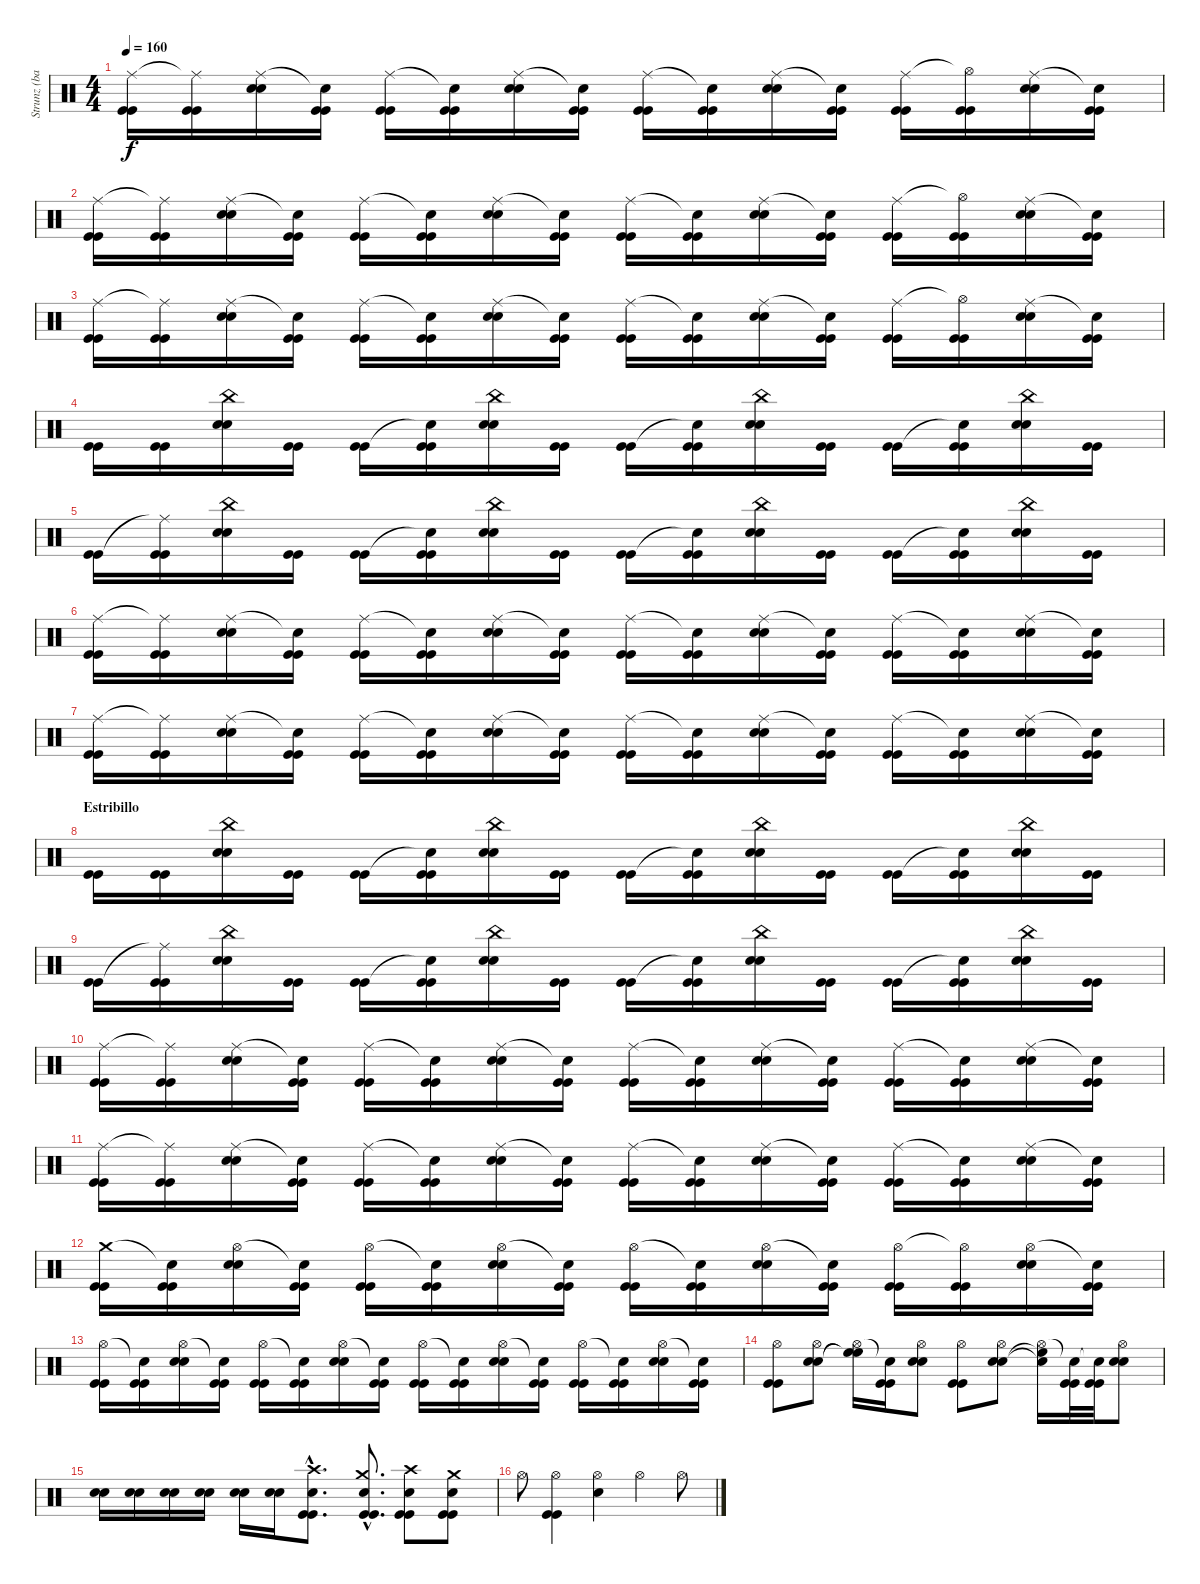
\track ("Strunz (bateria)" "Strunz (ba") {instrument percussion}
\staff {score}
\articulation defaults
\ts (4 4)
\tempo 160
\clef neutral
\ks c
("Ride (middle)" "Kick (hit)" "Kick (hit)").16{dy f} ("Ride (middle)"{t} "Kick (hit)" "Kick (hit)").16 ("Ride (middle)" "Snare (hit) 2" "Snare (hit) 2").16 ("Snare (hit)"{t} "Kick (hit)" "Kick (hit)").16 ("Ride (middle)" "Kick (hit)" "Kick (hit)").16 ("Snare (hit)"{t} "Kick (hit)" "Kick (hit)").16 ("Ride (middle)" "Snare (hit) 2" "Snare (hit) 2").16 ("Snare (hit)"{t} "Kick (hit)" "Kick (hit)").16 ("Ride (middle)" "Kick (hit)" "Kick (hit)").16 ("Snare (hit)"{t} "Kick (hit)" "Kick (hit)").16 ("Ride (middle)" "Snare (hit) 2" "Snare (hit) 2").16 ("Snare (hit)"{t} "Kick (hit)" "Kick (hit)").16 ("Ride (middle)" "Kick (hit)" "Kick (hit)").16 ("Hi-Hat (open)"{t} "Kick (hit)" "Kick (hit)").16 ("Ride (middle)" "Snare (hit) 2" "Snare (hit) 2").16 ("Snare (hit)"{t} "Kick (hit)" "Kick (hit)").16 |
("Ride (middle)" "Kick (hit)" "Kick (hit)").16 ("Ride (middle)"{t} "Kick (hit)" "Kick (hit)").16 ("Ride (middle)" "Snare (hit) 2" "Snare (hit) 2").16 ("Snare (hit)"{t} "Kick (hit)" "Kick (hit)").16 ("Ride (middle)" "Kick (hit)" "Kick (hit)").16 ("Snare (hit)"{t} "Kick (hit)" "Kick (hit)").16 ("Ride (middle)" "Snare (hit) 2" "Snare (hit) 2").16 ("Snare (hit)"{t} "Kick (hit)" "Kick (hit)").16 ("Ride (middle)" "Kick (hit)" "Kick (hit)").16 ("Snare (hit)"{t} "Kick (hit)" "Kick (hit)").16 ("Ride (middle)" "Snare (hit) 2" "Snare (hit) 2").16 ("Snare (hit)"{t} "Kick (hit)" "Kick (hit)").16 ("Ride (middle)" "Kick (hit)" "Kick (hit)").16 ("Hi-Hat (open)"{t} "Kick (hit)" "Kick (hit)").16 ("Ride (middle)" "Snare (hit) 2" "Snare (hit) 2").16 ("Snare (hit)"{t} "Kick (hit)" "Kick (hit)").16 |
("Ride (middle)" "Kick (hit)" "Kick (hit)").16 ("Ride (middle)"{t} "Kick (hit)" "Kick (hit)").16 ("Ride (middle)" "Snare (hit) 2" "Snare (hit) 2").16 ("Snare (hit)"{t} "Kick (hit)" "Kick (hit)").16 ("Ride (middle)" "Kick (hit)" "Kick (hit)").16 ("Snare (hit)"{t} "Kick (hit)" "Kick (hit)").16 ("Ride (middle)" "Snare (hit) 2" "Snare (hit) 2").16 ("Snare (hit)"{t} "Kick (hit)" "Kick (hit)").16 ("Ride (middle)" "Kick (hit)" "Kick (hit)").16 ("Snare (hit)"{t} "Kick (hit)" "Kick (hit)").16 ("Ride (middle)" "Snare (hit) 2" "Snare (hit) 2").16 ("Snare (hit)"{t} "Kick (hit)" "Kick (hit)").16 ("Ride (middle)" "Kick (hit)" "Kick (hit)").16 ("Hi-Hat (open)"{t} "Kick (hit)" "Kick (hit)").16 ("Ride (middle)" "Snare (hit) 2" "Snare (hit) 2").16 ("Snare (hit)"{t} "Kick (hit)" "Kick (hit)").16 |
("Kick (hit)" "Kick (hit)").16 ("Kick (hit)" "Kick (hit)").16 ("China (hit)" "Snare (hit) 2" "Snare (hit) 2").16 ("Kick (hit)" "Kick (hit)").16 ("Kick (hit)" "Kick (hit)").16 ("Snare (hit)"{t} "Kick (hit)" "Kick (hit)").16 ("China (hit)" "Snare (hit) 2" "Snare (hit) 2").16 ("Kick (hit)" "Kick (hit)").16 ("Kick (hit)" "Kick (hit)").16 ("Snare (hit)"{t} "Kick (hit)" "Kick (hit)").16 ("China (hit)" "Snare (hit) 2" "Snare (hit) 2").16 ("Kick (hit)" "Kick (hit)").16 ("Kick (hit)" "Kick (hit)").16 ("Snare (hit)"{t} "Kick (hit)" "Kick (hit)").16 ("China (hit)" "Snare (hit) 2" "Snare (hit) 2").16 ("Kick (hit)" "Kick (hit)").16 |
("Kick (hit)" "Kick (hit)").16 ("Ride (middle)"{t} "Kick (hit)" "Kick (hit)").16 ("China (hit)" "Snare (hit) 2" "Snare (hit) 2").16 ("Kick (hit)" "Kick (hit)").16 ("Kick (hit)" "Kick (hit)").16 ("Snare (hit)"{t} "Kick (hit)" "Kick (hit)").16 ("China (hit)" "Snare (hit) 2" "Snare (hit) 2").16 ("Kick (hit)" "Kick (hit)").16 ("Kick (hit)" "Kick (hit)").16 ("Snare (hit)"{t} "Kick (hit)" "Kick (hit)").16 ("China (hit)" "Snare (hit) 2" "Snare (hit) 2").16 ("Kick (hit)" "Kick (hit)").16 ("Kick (hit)" "Kick (hit)").16 ("Snare (hit)"{t} "Kick (hit)" "Kick (hit)").16 ("China (hit)" "Snare (hit) 2" "Snare (hit) 2").16 ("Kick (hit)" "Kick (hit)").16 |
("Ride (middle)" "Kick (hit)" "Kick (hit)").16 ("Ride (middle)"{t} "Kick (hit)" "Kick (hit)").16 ("Ride (middle)" "Snare (hit) 2" "Snare (hit) 2").16 ("Snare (hit)"{t} "Kick (hit)" "Kick (hit)").16 ("Ride (middle)" "Kick (hit)" "Kick (hit)").16 ("Snare (hit)"{t} "Kick (hit)" "Kick (hit)").16 ("Ride (middle)" "Snare (hit) 2" "Snare (hit) 2").16 ("Snare (hit)"{t} "Kick (hit)" "Kick (hit)").16 ("Ride (middle)" "Kick (hit)" "Kick (hit)").16 ("Snare (hit)"{t} "Kick (hit)" "Kick (hit)").16 ("Ride (middle)" "Snare (hit) 2" "Snare (hit) 2").16 ("Snare (hit)"{t} "Kick (hit)" "Kick (hit)").16 ("Ride (middle)" "Kick (hit)" "Kick (hit)").16 ("Snare (hit)"{t} "Kick (hit)" "Kick (hit)").16 ("Ride (middle)" "Snare (hit) 2" "Snare (hit) 2").16 ("Snare (hit)"{t} "Kick (hit)" "Kick (hit)").16 |
("Ride (middle)" "Kick (hit)" "Kick (hit)").16 ("Ride (middle)"{t} "Kick (hit)" "Kick (hit)").16 ("Ride (middle)" "Snare (hit) 2" "Snare (hit) 2").16 ("Snare (hit)"{t} "Kick (hit)" "Kick (hit)").16 ("Ride (middle)" "Kick (hit)" "Kick (hit)").16 ("Snare (hit)"{t} "Kick (hit)" "Kick (hit)").16 ("Ride (middle)" "Snare (hit) 2" "Snare (hit) 2").16 ("Snare (hit)"{t} "Kick (hit)" "Kick (hit)").16 ("Ride (middle)" "Kick (hit)" "Kick (hit)").16 ("Snare (hit)"{t} "Kick (hit)" "Kick (hit)").16 ("Ride (middle)" "Snare (hit) 2" "Snare (hit) 2").16 ("Snare (hit)"{t} "Kick (hit)" "Kick (hit)").16 ("Ride (middle)" "Kick (hit)" "Kick (hit)").16 ("Snare (hit)"{t} "Kick (hit)" "Kick (hit)").16 ("Ride (middle)" "Snare (hit) 2" "Snare (hit) 2").16 ("Snare (hit)"{t} "Kick (hit)" "Kick (hit)").16 |
\section ("" "Estribillo")
("Kick (hit)" "Kick (hit)").16 ("Kick (hit)" "Kick (hit)").16 ("China (hit)" "Snare (hit) 2" "Snare (hit) 2").16 ("Kick (hit)" "Kick (hit)").16 ("Kick (hit)" "Kick (hit)").16 ("Snare (hit)"{t} "Kick (hit)" "Kick (hit)").16 ("China (hit)" "Snare (hit) 2" "Snare (hit) 2").16 ("Kick (hit)" "Kick (hit)").16 ("Kick (hit)" "Kick (hit)").16 ("Snare (hit)"{t} "Kick (hit)" "Kick (hit)").16 ("China (hit)" "Snare (hit) 2" "Snare (hit) 2").16 ("Kick (hit)" "Kick (hit)").16 ("Kick (hit)" "Kick (hit)").16 ("Snare (hit)"{t} "Kick (hit)" "Kick (hit)").16 ("China (hit)" "Snare (hit) 2" "Snare (hit) 2").16 ("Kick (hit)" "Kick (hit)").16 |
("Kick (hit)" "Kick (hit)").16 ("Ride (middle)"{t} "Kick (hit)" "Kick (hit)").16 ("China (hit)" "Snare (hit) 2" "Snare (hit) 2").16 ("Kick (hit)" "Kick (hit)").16 ("Kick (hit)" "Kick (hit)").16 ("Snare (hit)"{t} "Kick (hit)" "Kick (hit)").16 ("China (hit)" "Snare (hit) 2" "Snare (hit) 2").16 ("Kick (hit)" "Kick (hit)").16 ("Kick (hit)" "Kick (hit)").16 ("Snare (hit)"{t} "Kick (hit)" "Kick (hit)").16 ("China (hit)" "Snare (hit) 2" "Snare (hit) 2").16 ("Kick (hit)" "Kick (hit)").16 ("Kick (hit)" "Kick (hit)").16 ("Snare (hit)"{t} "Kick (hit)" "Kick (hit)").16 ("China (hit)" "Snare (hit) 2" "Snare (hit) 2").16 ("Kick (hit)" "Kick (hit)").16 |
("Ride (middle)" "Kick (hit)" "Kick (hit)").16 ("Ride (middle)"{t} "Kick (hit)" "Kick (hit)").16 ("Ride (middle)" "Snare (hit) 2" "Snare (hit) 2").16 ("Snare (hit)"{t} "Kick (hit)" "Kick (hit)").16 ("Ride (middle)" "Kick (hit)" "Kick (hit)").16 ("Snare (hit)"{t} "Kick (hit)" "Kick (hit)").16 ("Ride (middle)" "Snare (hit) 2" "Snare (hit) 2").16 ("Snare (hit)"{t} "Kick (hit)" "Kick (hit)").16 ("Ride (middle)" "Kick (hit)" "Kick (hit)").16 ("Snare (hit)"{t} "Kick (hit)" "Kick (hit)").16 ("Ride (middle)" "Snare (hit) 2" "Snare (hit) 2").16 ("Snare (hit)"{t} "Kick (hit)" "Kick (hit)").16 ("Ride (middle)" "Kick (hit)" "Kick (hit)").16 ("Snare (hit)"{t} "Kick (hit)" "Kick (hit)").16 ("Ride (middle)" "Snare (hit) 2" "Snare (hit) 2").16 ("Snare (hit)"{t} "Kick (hit)" "Kick (hit)").16 |
("Ride (middle)" "Kick (hit)" "Kick (hit)").16 ("Ride (middle)"{t} "Kick (hit)" "Kick (hit)").16 ("Ride (middle)" "Snare (hit) 2" "Snare (hit) 2").16 ("Snare (hit)"{t} "Kick (hit)" "Kick (hit)").16 ("Ride (middle)" "Kick (hit)" "Kick (hit)").16 ("Snare (hit)"{t} "Kick (hit)" "Kick (hit)").16 ("Ride (middle)" "Snare (hit) 2" "Snare (hit) 2").16 ("Snare (hit)"{t} "Kick (hit)" "Kick (hit)").16 ("Ride (middle)" "Kick (hit)" "Kick (hit)").16 ("Snare (hit)"{t} "Kick (hit)" "Kick (hit)").16 ("Ride (middle)" "Snare (hit) 2" "Snare (hit) 2").16 ("Snare (hit)"{t} "Kick (hit)" "Kick (hit)").16 ("Ride (middle)" "Kick (hit)" "Kick (hit)").16 ("Snare (hit)"{t} "Kick (hit)" "Kick (hit)").16 ("Ride (middle)" "Snare (hit) 2" "Snare (hit) 2").16 ("Snare (hit)"{t} "Kick (hit)" "Kick (hit)").16 |
("Crash medium (hit)" "Kick (hit)" "Kick (hit)").16 ("Snare (hit)"{t} "Kick (hit)" "Kick (hit)").16 ("Hi-Hat (open)" "Snare (hit) 2" "Snare (hit) 2").16 ("Snare (hit)"{t} "Kick (hit)" "Kick (hit)").16 ("Hi-Hat (open)" "Kick (hit)" "Kick (hit)").16 ("Snare (hit)"{t} "Kick (hit)" "Kick (hit)").16 ("Hi-Hat (open)" "Snare (hit) 2" "Snare (hit) 2").16 ("Snare (hit)"{t} "Kick (hit)" "Kick (hit)").16 ("Hi-Hat (open)" "Kick (hit)" "Kick (hit)").16 ("Snare (hit)"{t} "Kick (hit)" "Kick (hit)").16 ("Hi-Hat (open)" "Snare (hit) 2" "Snare (hit) 2").16 ("Snare (hit)"{t} "Kick (hit)" "Kick (hit)").16 ("Hi-Hat (open)" "Kick (hit)" "Kick (hit)").16 ("Hi-Hat (open)"{t} "Kick (hit)" "Kick (hit)").16 ("Hi-Hat (open)" "Snare (hit) 2" "Snare (hit) 2").16 ("Snare (hit)"{t} "Kick (hit)" "Kick (hit)").16 |
("Hi-Hat (open)" "Kick (hit)" "Kick (hit)").16 ("Snare (hit)"{t} "Kick (hit)" "Kick (hit)").16 ("Hi-Hat (open)" "Snare (hit) 2" "Snare (hit) 2").16 ("Snare (hit)"{t} "Kick (hit)" "Kick (hit)").16 ("Hi-Hat (open)" "Kick (hit)" "Kick (hit)").16 ("Snare (hit)"{t} "Kick (hit)" "Kick (hit)").16 ("Hi-Hat (open)" "Snare (hit) 2" "Snare (hit) 2").16 ("Snare (hit)"{t} "Kick (hit)" "Kick (hit)").16 ("Hi-Hat (open)" "Kick (hit)" "Kick (hit)").16 ("Snare (hit)"{t} "Kick (hit)" "Kick (hit)").16 ("Hi-Hat (open)" "Snare (hit) 2" "Snare (hit) 2").16 ("Snare (hit)"{t} "Kick (hit)" "Kick (hit)").16 ("Hi-Hat (open)" "Kick (hit)" "Kick (hit)").16 ("Snare (hit)"{t} "Kick (hit)" "Kick (hit)").16 ("Hi-Hat (open)" "Snare (hit) 2" "Snare (hit) 2").16 ("Snare (hit)"{t} "Kick (hit)" "Kick (hit)").16 |
("Hi-Hat (open)" "Kick (hit)" "Kick (hit)").8 ("Hi-Hat (open)" "Snare (hit) 2" "Snare (hit) 2").8 ("Hi-Hat (open)" "High Floor Tom (hit)"{t} "High Floor Tom (hit)"{t}).16 ("Snare (hit)"{t} "Kick (hit)" "Kick (hit)").16 ("Hi-Hat (open)" "Snare (hit) 2" "Snare (hit) 2").8 ("Hi-Hat (open)" "Kick (hit)" "Kick (hit)").8 ("Hi-Hat (open)" "Snare (hit) 2" "Snare (hit) 2").8 ("Hi-Hat (open)" "Snare (hit)"{t} "High Floor Tom (hit)"{t}).16 ("Snare (hit)"{t} "Kick (hit)" "Kick (hit)").32 ("Snare (hit)"{t} "Kick (hit)" "Kick (hit)").32 ("Hi-Hat (open)" "Snare (hit) 2" "Snare (hit) 2").8 |
("Snare (hit) 2" "Snare (hit) 2").16 ("Snare (hit) 2" "Snare (hit) 2").16 ("Snare (hit) 2" "Snare (hit) 2").16 ("Snare (hit) 2" "Snare (hit) 2").16 ("Snare (hit) 2" "Snare (hit) 2").16 ("Snare (hit) 2" "Snare (hit) 2").16 ("Crash high (hit)"{hac} "Snare (hit) 2"{hac} "Kick (hit)"{hac} "Kick (hit)"{hac}).8{d} ("Crash medium (hit)"{hac} "Electric Snare (hit)"{hac} "Kick (hit)"{hac} "Kick (hit)"{hac}).8{d} ("Crash high (hit)" "Snare (hit) 2" "Kick (hit)" "Kick (hit)").8 ("Crash medium (hit)" "Snare (hit) 2" "Kick (hit)" "Kick (hit)").8 |
"Hi-Hat (open)".8 ("Hi-Hat (open)" "Kick (hit)" "Kick (hit)").4 ("Hi-Hat (open)" "Electric Snare (hit)").4 "Hi-Hat (open)".4 "Hi-Hat (open)".8
